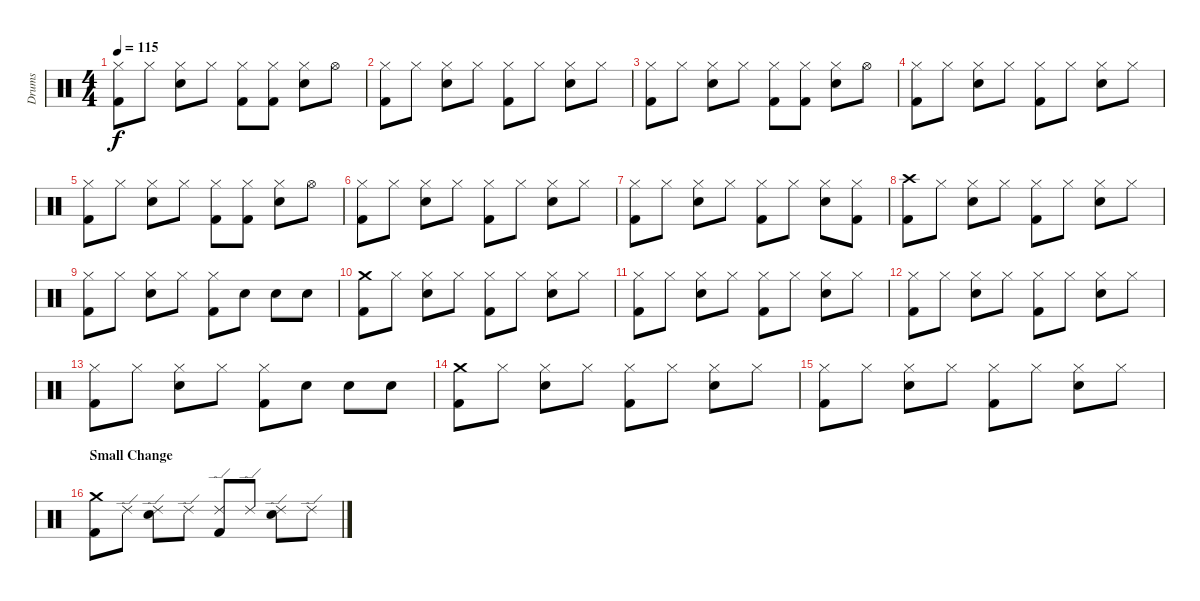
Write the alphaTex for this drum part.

\track ("Drums   " "Drums   ") {instrument percussion}
\staff {score}
\articulation defaults
\ts (4 4)
\tempo 115
\clef neutral
\ks c
("Hi-Hat (closed)" "Kick (hit) 2").8{dy f} "Hi-Hat (closed)".8 ("Hi-Hat (closed)" "Snare (hit) 2").8 "Hi-Hat (closed)".8 ("Hi-Hat (closed)" "Kick (hit) 2").8 ("Hi-Hat (closed)" "Kick (hit) 2").8 ("Hi-Hat (closed)" "Snare (hit) 2").8 "Hi-Hat (open)".8 |
("Hi-Hat (closed)" "Kick (hit) 2").8 "Hi-Hat (closed)".8 ("Hi-Hat (closed)" "Snare (hit) 2").8 "Hi-Hat (closed)".8 ("Hi-Hat (closed)" "Kick (hit) 2").8 "Hi-Hat (closed)".8 ("Hi-Hat (closed)" "Snare (hit) 2").8 "Hi-Hat (closed)".8 |
("Hi-Hat (closed)" "Kick (hit) 2").8 "Hi-Hat (closed)".8 ("Hi-Hat (closed)" "Snare (hit) 2").8 "Hi-Hat (closed)".8 ("Hi-Hat (closed)" "Kick (hit) 2").8 ("Hi-Hat (closed)" "Kick (hit) 2").8 ("Hi-Hat (closed)" "Snare (hit) 2").8 "Hi-Hat (open)".8 |
("Hi-Hat (closed)" "Kick (hit) 2").8 "Hi-Hat (closed)".8 ("Hi-Hat (closed)" "Snare (hit) 2").8 "Hi-Hat (closed)".8 ("Hi-Hat (closed)" "Kick (hit) 2").8 "Hi-Hat (closed)".8 ("Hi-Hat (closed)" "Snare (hit) 2").8 "Hi-Hat (closed)".8 |
("Hi-Hat (closed)" "Kick (hit) 2").8 "Hi-Hat (closed)".8 ("Hi-Hat (closed)" "Snare (hit) 2").8 "Hi-Hat (closed)".8 ("Hi-Hat (closed)" "Kick (hit) 2").8 ("Hi-Hat (closed)" "Kick (hit) 2").8 ("Hi-Hat (closed)" "Snare (hit) 2").8 "Hi-Hat (open)".8 |
("Hi-Hat (closed)" "Kick (hit) 2").8 "Hi-Hat (closed)".8 ("Hi-Hat (closed)" "Snare (hit) 2").8 "Hi-Hat (closed)".8 ("Hi-Hat (closed)" "Kick (hit) 2").8 "Hi-Hat (closed)".8 ("Hi-Hat (closed)" "Snare (hit) 2").8 "Hi-Hat (closed)".8 |
("Hi-Hat (closed)" "Kick (hit) 2").8 "Hi-Hat (closed)".8 ("Hi-Hat (closed)" "Snare (hit) 2").8 "Hi-Hat (closed)".8 ("Hi-Hat (closed)" "Kick (hit) 2").8 "Hi-Hat (closed)".8 ("Hi-Hat (closed)" "Snare (hit) 2").8 ("Hi-Hat (closed)" "Kick (hit) 2").8 |
("Crash high (hit)" "Kick (hit) 2").8 "Hi-Hat (closed)".8 ("Hi-Hat (closed)" "Snare (hit) 2").8 "Hi-Hat (closed)".8 ("Hi-Hat (closed)" "Kick (hit) 2").8 "Hi-Hat (closed)".8 ("Hi-Hat (closed)" "Snare (hit) 2").8 "Hi-Hat (closed)".8 |
("Hi-Hat (closed)" "Kick (hit) 2").8 "Hi-Hat (closed)".8 ("Hi-Hat (closed)" "Snare (hit) 2").8 "Hi-Hat (closed)".8 ("Hi-Hat (closed)" "Kick (hit) 2").8 "Snare (hit) 2".8 "Snare (hit) 2".8 "Snare (hit) 2".8 |
("Crash medium (hit)" "Kick (hit) 2").8 "Hi-Hat (closed)".8 ("Hi-Hat (closed)" "Snare (hit) 2").8 "Hi-Hat (closed)".8 ("Hi-Hat (closed)" "Kick (hit) 2").8 "Hi-Hat (closed)".8 ("Hi-Hat (closed)" "Snare (hit) 2").8 "Hi-Hat (closed)".8 |
("Hi-Hat (closed)" "Kick (hit) 2").8 "Hi-Hat (closed)".8 ("Hi-Hat (closed)" "Snare (hit) 2").8 "Hi-Hat (closed)".8 ("Hi-Hat (closed)" "Kick (hit) 2").8 "Hi-Hat (closed)".8 ("Hi-Hat (closed)" "Snare (hit) 2").8 "Hi-Hat (closed)".8 |
("Hi-Hat (closed)" "Kick (hit) 2").8 "Hi-Hat (closed)".8 ("Hi-Hat (closed)" "Snare (hit) 2").8 "Hi-Hat (closed)".8 ("Hi-Hat (closed)" "Kick (hit) 2").8 "Hi-Hat (closed)".8 ("Hi-Hat (closed)" "Snare (hit) 2").8 "Hi-Hat (closed)".8 |
("Hi-Hat (closed)" "Kick (hit) 2").8 "Hi-Hat (closed)".8 ("Hi-Hat (closed)" "Snare (hit) 2").8 "Hi-Hat (closed)".8 ("Hi-Hat (closed)" "Kick (hit) 2").8 "Snare (hit) 2".8 "Snare (hit) 2".8 "Snare (hit) 2".8 |
("Crash medium (hit)" "Kick (hit) 2").8 "Hi-Hat (closed)".8 ("Hi-Hat (closed)" "Snare (hit) 2").8 "Hi-Hat (closed)".8 ("Hi-Hat (closed)" "Kick (hit) 2").8 "Hi-Hat (closed)".8 ("Hi-Hat (closed)" "Snare (hit) 2").8 "Hi-Hat (closed)".8 |
("Hi-Hat (closed)" "Kick (hit) 2").8 "Hi-Hat (closed)".8 ("Hi-Hat (closed)" "Snare (hit) 2").8 "Hi-Hat (closed)".8 ("Hi-Hat (closed)" "Kick (hit) 2").8 "Hi-Hat (closed)".8 ("Hi-Hat (closed)" "Snare (hit) 2").8 "Hi-Hat (closed)".8 |
\section ("" "Small Change")
("Crash medium (hit)" "Kick (hit) 2").8 "Ride (edge) 2".8 ("Ride (edge) 2" "Snare (hit) 2").8 "Ride (edge) 2".8 ("Ride (edge) 2" "Kick (hit) 2").8 "Ride (edge) 2".8 ("Ride (edge) 2" "Snare (hit) 2").8 "Ride (edge) 2".8
